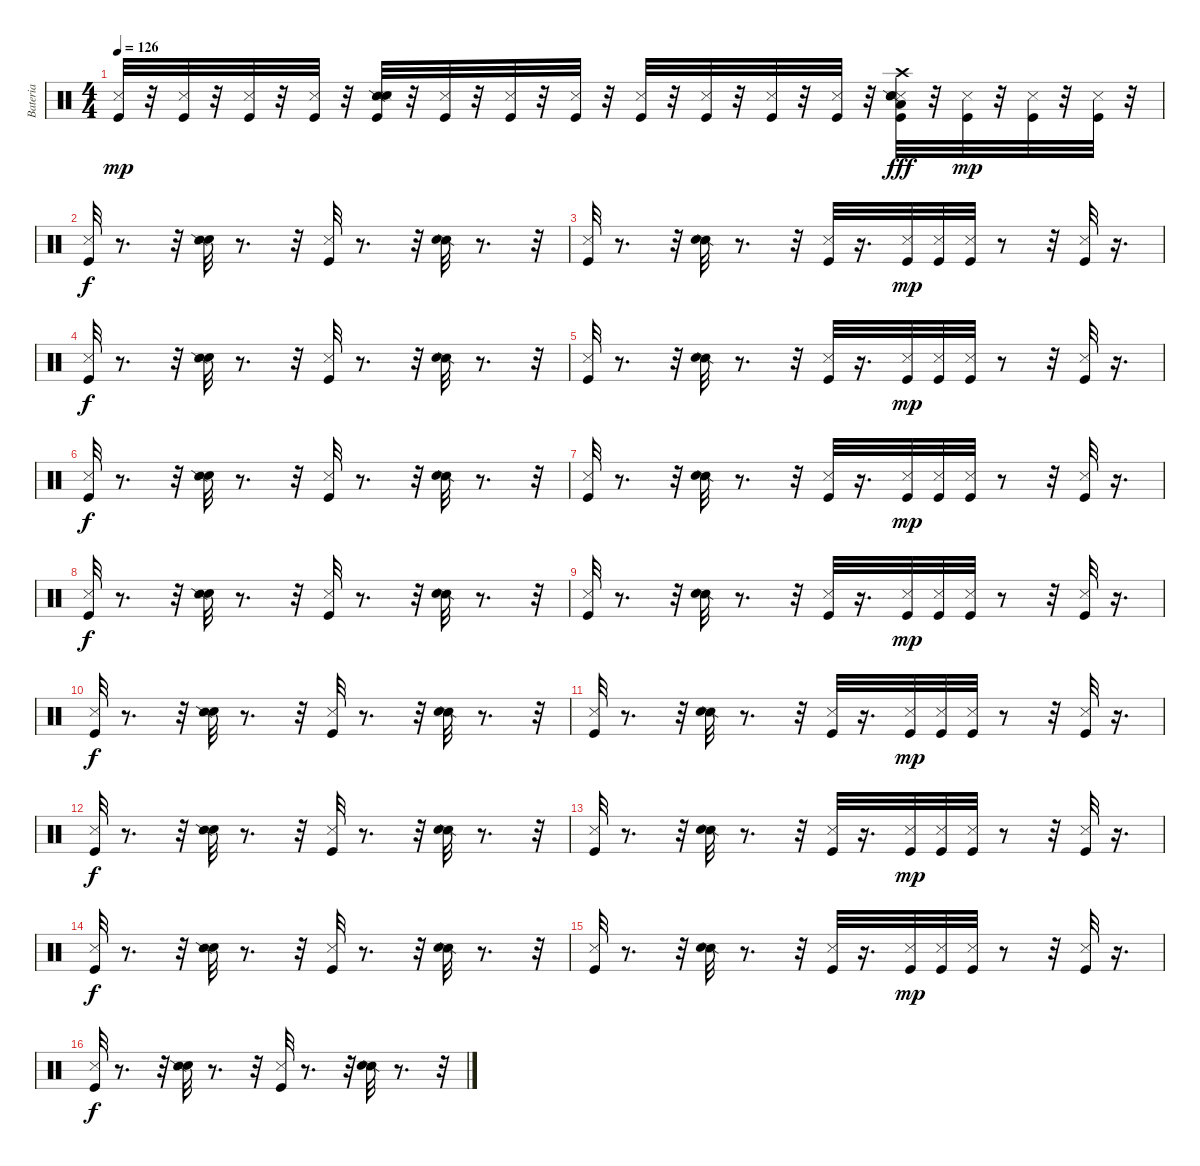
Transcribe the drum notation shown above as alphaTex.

\track ("Bateria" "Bateria") {instrument percussion}
\staff {score}
\articulation defaults
\ts (4 4)
\tempo 126
\clef neutral
\ks c
("Metronome (hit)" "Kick (hit)").32{dy mp} r.32 ("Metronome (hit)" "Kick (hit)").32 r.32 ("Metronome (hit)" "Kick (hit)").32 r.32 ("Metronome (hit)" "Kick (hit)").32 r.32 ("Snare (side stick) 2" "Metronome (hit)" "Kick (hit)" "Metronome (bell)").32 r.32 ("Metronome (hit)" "Kick (hit)").32 r.32 ("Metronome (hit)" "Kick (hit)").32 r.32 ("Metronome (hit)" "Kick (hit)").32 r.32 ("Metronome (hit)" "Kick (hit)").32 r.32 ("Metronome (hit)" "Kick (hit)").32 r.32 ("Metronome (hit)" "Kick (hit)").32 r.32 ("Metronome (hit)" "Kick (hit)").32 r.32 ("Metronome (hit)" "Kick (hit)" "Low Floor Tom (hit)" "Crash high (hit)" "Snare (side stick) 2" "Metronome (bell)").32{dy fff} r.32 ("Metronome (hit)" "Kick (hit)").32{dy mp} r.32 ("Kick (hit)" "Metronome (hit)").32 r.32 ("Metronome (hit)" "Kick (hit)").32 r.32 |
("Kick (hit)" "Metronome (hit)").32{dy f} r.8{d} r.32 ("Metronome (bell)" "Snare (side stick) 2").32 r.8{d} r.32 ("Metronome (hit)" "Kick (hit)").32 r.8{d} r.32 ("Snare (side stick) 2" "Metronome (bell)").32 r.8{d} r.32 |
("Metronome (hit)" "Kick (hit)").32 r.8{d} r.32 ("Snare (side stick) 2" "Metronome (bell)").32 r.8{d} r.32 ("Metronome (hit)" "Kick (hit)").32 r.16{d} ("Metronome (hit)" "Kick (hit)").32{dy mp} ("Kick (hit)" "Metronome (hit)").32 ("Metronome (hit)" "Kick (hit)").32 r.8 r.32 ("Metronome (hit)" "Kick (hit)").32 r.16{d} |
("Kick (hit)" "Metronome (hit)").32{dy f} r.8{d} r.32 ("Metronome (bell)" "Snare (side stick) 2").32 r.8{d} r.32 ("Metronome (hit)" "Kick (hit)").32 r.8{d} r.32 ("Snare (side stick) 2" "Metronome (bell)").32 r.8{d} r.32 |
("Metronome (hit)" "Kick (hit)").32 r.8{d} r.32 ("Snare (side stick) 2" "Metronome (bell)").32 r.8{d} r.32 ("Metronome (hit)" "Kick (hit)").32 r.16{d} ("Metronome (hit)" "Kick (hit)").32{dy mp} ("Kick (hit)" "Metronome (hit)").32 ("Metronome (hit)" "Kick (hit)").32 r.8 r.32 ("Metronome (hit)" "Kick (hit)").32 r.16{d} |
("Kick (hit)" "Metronome (hit)").32{dy f} r.8{d} r.32 ("Metronome (bell)" "Snare (side stick) 2").32 r.8{d} r.32 ("Metronome (hit)" "Kick (hit)").32 r.8{d} r.32 ("Snare (side stick) 2" "Metronome (bell)").32 r.8{d} r.32 |
("Metronome (hit)" "Kick (hit)").32 r.8{d} r.32 ("Snare (side stick) 2" "Metronome (bell)").32 r.8{d} r.32 ("Metronome (hit)" "Kick (hit)").32 r.16{d} ("Metronome (hit)" "Kick (hit)").32{dy mp} ("Kick (hit)" "Metronome (hit)").32 ("Metronome (hit)" "Kick (hit)").32 r.8 r.32 ("Metronome (hit)" "Kick (hit)").32 r.16{d} |
("Kick (hit)" "Metronome (hit)").32{dy f} r.8{d} r.32 ("Metronome (bell)" "Snare (side stick) 2").32 r.8{d} r.32 ("Metronome (hit)" "Kick (hit)").32 r.8{d} r.32 ("Snare (side stick) 2" "Metronome (bell)").32 r.8{d} r.32 |
("Metronome (hit)" "Kick (hit)").32 r.8{d} r.32 ("Snare (side stick) 2" "Metronome (bell)").32 r.8{d} r.32 ("Metronome (hit)" "Kick (hit)").32 r.16{d} ("Metronome (hit)" "Kick (hit)").32{dy mp} ("Kick (hit)" "Metronome (hit)").32 ("Metronome (hit)" "Kick (hit)").32 r.8 r.32 ("Metronome (hit)" "Kick (hit)").32 r.16{d} |
("Kick (hit)" "Metronome (hit)").32{dy f} r.8{d} r.32 ("Metronome (bell)" "Snare (side stick) 2").32 r.8{d} r.32 ("Metronome (hit)" "Kick (hit)").32 r.8{d} r.32 ("Snare (side stick) 2" "Metronome (bell)").32 r.8{d} r.32 |
("Metronome (hit)" "Kick (hit)").32 r.8{d} r.32 ("Snare (side stick) 2" "Metronome (bell)").32 r.8{d} r.32 ("Metronome (hit)" "Kick (hit)").32 r.16{d} ("Metronome (hit)" "Kick (hit)").32{dy mp} ("Kick (hit)" "Metronome (hit)").32 ("Metronome (hit)" "Kick (hit)").32 r.8 r.32 ("Metronome (hit)" "Kick (hit)").32 r.16{d} |
("Kick (hit)" "Metronome (hit)").32{dy f} r.8{d} r.32 ("Metronome (bell)" "Snare (side stick) 2").32 r.8{d} r.32 ("Metronome (hit)" "Kick (hit)").32 r.8{d} r.32 ("Snare (side stick) 2" "Metronome (bell)").32 r.8{d} r.32 |
("Metronome (hit)" "Kick (hit)").32 r.8{d} r.32 ("Snare (side stick) 2" "Metronome (bell)").32 r.8{d} r.32 ("Metronome (hit)" "Kick (hit)").32 r.16{d} ("Metronome (hit)" "Kick (hit)").32{dy mp} ("Kick (hit)" "Metronome (hit)").32 ("Metronome (hit)" "Kick (hit)").32 r.8 r.32 ("Metronome (hit)" "Kick (hit)").32 r.16{d} |
("Kick (hit)" "Metronome (hit)").32{dy f} r.8{d} r.32 ("Metronome (bell)" "Snare (side stick) 2").32 r.8{d} r.32 ("Metronome (hit)" "Kick (hit)").32 r.8{d} r.32 ("Snare (side stick) 2" "Metronome (bell)").32 r.8{d} r.32 |
("Metronome (hit)" "Kick (hit)").32 r.8{d} r.32 ("Snare (side stick) 2" "Metronome (bell)").32 r.8{d} r.32 ("Metronome (hit)" "Kick (hit)").32 r.16{d} ("Metronome (hit)" "Kick (hit)").32{dy mp} ("Kick (hit)" "Metronome (hit)").32 ("Metronome (hit)" "Kick (hit)").32 r.8 r.32 ("Metronome (hit)" "Kick (hit)").32 r.16{d} |
("Kick (hit)" "Metronome (hit)").32{dy f} r.8{d} r.32 ("Metronome (bell)" "Snare (side stick) 2").32 r.8{d} r.32 ("Metronome (hit)" "Kick (hit)").32 r.8{d} r.32 ("Snare (side stick) 2" "Metronome (bell)").32 r.8{d} r.32
